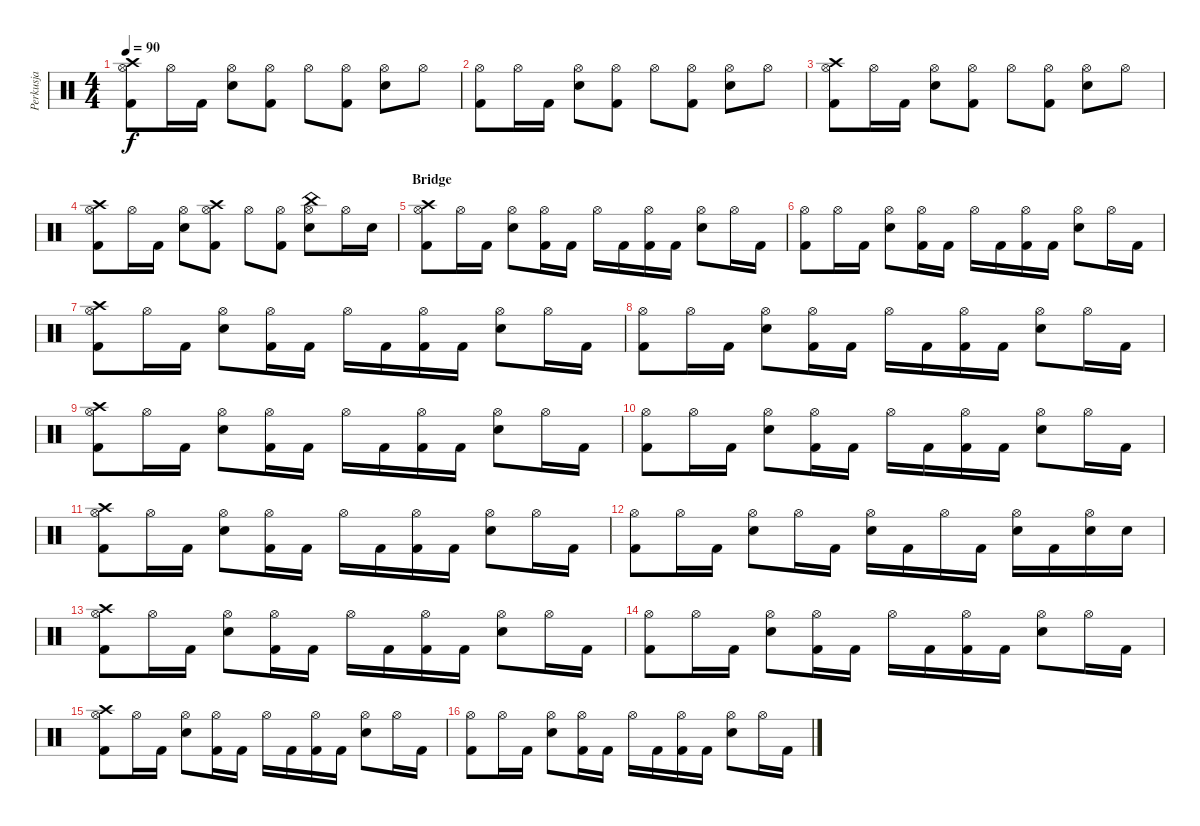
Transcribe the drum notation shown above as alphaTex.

\track ("Perkusja" "Perkusja") {instrument percussion}
\staff {score}
\articulation defaults
\ts (4 4)
\tempo 90
\clef neutral
\ks c
("Hi-Hat (open)" "Kick (hit) 2" "Crash high (hit)").8{dy f} "Hi-Hat (open)".16 "Kick (hit) 2".16 ("Hi-Hat (open)" "Snare (hit) 2").8 ("Hi-Hat (open)" "Kick (hit) 2").8 "Hi-Hat (open)".8 ("Hi-Hat (open)" "Kick (hit) 2").8 ("Hi-Hat (open)" "Snare (hit) 2").8 "Hi-Hat (open)".8 |
("Hi-Hat (open)" "Kick (hit) 2").8 "Hi-Hat (open)".16 "Kick (hit) 2".16 ("Hi-Hat (open)" "Snare (hit) 2").8 ("Hi-Hat (open)" "Kick (hit) 2").8 "Hi-Hat (open)".8 ("Hi-Hat (open)" "Kick (hit) 2").8 ("Hi-Hat (open)" "Snare (hit) 2").8 "Hi-Hat (open)".8 |
("Hi-Hat (open)" "Kick (hit) 2" "Crash high (hit)").8 "Hi-Hat (open)".16 "Kick (hit) 2".16 ("Hi-Hat (open)" "Snare (hit) 2").8 ("Hi-Hat (open)" "Kick (hit) 2").8 "Hi-Hat (open)".8 ("Hi-Hat (open)" "Kick (hit) 2").8 ("Hi-Hat (open)" "Snare (hit) 2").8 "Hi-Hat (open)".8 |
("Hi-Hat (open)" "Kick (hit) 2" "Crash high (hit)").8 "Hi-Hat (open)".16 "Kick (hit) 2".16 ("Hi-Hat (open)" "Snare (hit) 2").8 ("Hi-Hat (open)" "Kick (hit) 2" "Crash high (hit)").8 "Hi-Hat (open)".8 ("Hi-Hat (open)" "Kick (hit) 2").8 ("Hi-Hat (open)" "Snare (hit) 2" "China (hit)").8 "Hi-Hat (open)".16 "Snare (hit) 2".16 |
\section ("" "Bridge")
("Hi-Hat (open)" "Kick (hit) 2" "Crash high (hit)").8 "Hi-Hat (open)".16 "Kick (hit) 2".16 ("Hi-Hat (open)" "Snare (hit) 2").8 ("Hi-Hat (open)" "Kick (hit) 2").16 "Kick (hit) 2".16 "Hi-Hat (open)".16 "Kick (hit) 2".16 ("Hi-Hat (open)" "Kick (hit) 2").16 "Kick (hit) 2".16 ("Hi-Hat (open)" "Snare (hit) 2").8 "Hi-Hat (open)".16 "Kick (hit) 2".16 |
("Hi-Hat (open)" "Kick (hit) 2").8 "Hi-Hat (open)".16 "Kick (hit) 2".16 ("Hi-Hat (open)" "Snare (hit) 2").8 ("Hi-Hat (open)" "Kick (hit) 2").16 "Kick (hit) 2".16 "Hi-Hat (open)".16 "Kick (hit) 2".16 ("Hi-Hat (open)" "Kick (hit) 2").16 "Kick (hit) 2".16 ("Hi-Hat (open)" "Snare (hit) 2").8 "Hi-Hat (open)".16 "Kick (hit) 2".16 |
("Hi-Hat (open)" "Kick (hit) 2" "Crash high (hit)").8 "Hi-Hat (open)".16 "Kick (hit) 2".16 ("Hi-Hat (open)" "Snare (hit) 2").8 ("Hi-Hat (open)" "Kick (hit) 2").16 "Kick (hit) 2".16 "Hi-Hat (open)".16 "Kick (hit) 2".16 ("Hi-Hat (open)" "Kick (hit) 2").16 "Kick (hit) 2".16 ("Hi-Hat (open)" "Snare (hit) 2").8 "Hi-Hat (open)".16 "Kick (hit) 2".16 |
("Hi-Hat (open)" "Kick (hit) 2").8 "Hi-Hat (open)".16 "Kick (hit) 2".16 ("Hi-Hat (open)" "Snare (hit) 2").8 ("Hi-Hat (open)" "Kick (hit) 2").16 "Kick (hit) 2".16 "Hi-Hat (open)".16 "Kick (hit) 2".16 ("Hi-Hat (open)" "Kick (hit) 2").16 "Kick (hit) 2".16 ("Hi-Hat (open)" "Snare (hit) 2").8 "Hi-Hat (open)".16 "Kick (hit) 2".16 |
("Hi-Hat (open)" "Kick (hit) 2" "Crash high (hit)").8 "Hi-Hat (open)".16 "Kick (hit) 2".16 ("Hi-Hat (open)" "Snare (hit) 2").8 ("Hi-Hat (open)" "Kick (hit) 2").16 "Kick (hit) 2".16 "Hi-Hat (open)".16 "Kick (hit) 2".16 ("Hi-Hat (open)" "Kick (hit) 2").16 "Kick (hit) 2".16 ("Hi-Hat (open)" "Snare (hit) 2").8 "Hi-Hat (open)".16 "Kick (hit) 2".16 |
("Hi-Hat (open)" "Kick (hit) 2").8 "Hi-Hat (open)".16 "Kick (hit) 2".16 ("Hi-Hat (open)" "Snare (hit) 2").8 ("Hi-Hat (open)" "Kick (hit) 2").16 "Kick (hit) 2".16 "Hi-Hat (open)".16 "Kick (hit) 2".16 ("Hi-Hat (open)" "Kick (hit) 2").16 "Kick (hit) 2".16 ("Hi-Hat (open)" "Snare (hit) 2").8 "Hi-Hat (open)".16 "Kick (hit) 2".16 |
("Hi-Hat (open)" "Kick (hit) 2" "Crash high (hit)").8 "Hi-Hat (open)".16 "Kick (hit) 2".16 ("Hi-Hat (open)" "Snare (hit) 2").8 ("Hi-Hat (open)" "Kick (hit) 2").16 "Kick (hit) 2".16 "Hi-Hat (open)".16 "Kick (hit) 2".16 ("Hi-Hat (open)" "Kick (hit) 2").16 "Kick (hit) 2".16 ("Hi-Hat (open)" "Snare (hit) 2").8 "Hi-Hat (open)".16 "Kick (hit) 2".16 |
("Hi-Hat (open)" "Kick (hit) 2").8 "Hi-Hat (open)".16 "Kick (hit) 2".16 ("Hi-Hat (open)" "Snare (hit) 2").8 "Hi-Hat (open)".16 "Kick (hit) 2".16 ("Hi-Hat (open)" "Snare (hit) 2").16 "Kick (hit) 2".16 "Hi-Hat (open)".16 "Kick (hit) 2".16 ("Hi-Hat (open)" "Snare (hit) 2").16 "Kick (hit) 2".16 ("Hi-Hat (open)" "Snare (hit) 2").16 "Snare (hit) 2".16 |
("Hi-Hat (open)" "Kick (hit) 2" "Crash high (hit)").8 "Hi-Hat (open)".16 "Kick (hit) 2".16 ("Hi-Hat (open)" "Snare (hit) 2").8 ("Hi-Hat (open)" "Kick (hit) 2").16 "Kick (hit) 2".16 "Hi-Hat (open)".16 "Kick (hit) 2".16 ("Hi-Hat (open)" "Kick (hit) 2").16 "Kick (hit) 2".16 ("Hi-Hat (open)" "Snare (hit) 2").8 "Hi-Hat (open)".16 "Kick (hit) 2".16 |
("Hi-Hat (open)" "Kick (hit) 2").8 "Hi-Hat (open)".16 "Kick (hit) 2".16 ("Hi-Hat (open)" "Snare (hit) 2").8 ("Hi-Hat (open)" "Kick (hit) 2").16 "Kick (hit) 2".16 "Hi-Hat (open)".16 "Kick (hit) 2".16 ("Hi-Hat (open)" "Kick (hit) 2").16 "Kick (hit) 2".16 ("Hi-Hat (open)" "Snare (hit) 2").8 "Hi-Hat (open)".16 "Kick (hit) 2".16 |
("Hi-Hat (open)" "Kick (hit) 2" "Crash high (hit)").8 "Hi-Hat (open)".16 "Kick (hit) 2".16 ("Hi-Hat (open)" "Snare (hit) 2").8 ("Hi-Hat (open)" "Kick (hit) 2").16 "Kick (hit) 2".16 "Hi-Hat (open)".16 "Kick (hit) 2".16 ("Hi-Hat (open)" "Kick (hit) 2").16 "Kick (hit) 2".16 ("Hi-Hat (open)" "Snare (hit) 2").8 "Hi-Hat (open)".16 "Kick (hit) 2".16 |
("Hi-Hat (open)" "Kick (hit) 2").8 "Hi-Hat (open)".16 "Kick (hit) 2".16 ("Hi-Hat (open)" "Snare (hit) 2").8 ("Hi-Hat (open)" "Kick (hit) 2").16 "Kick (hit) 2".16 "Hi-Hat (open)".16 "Kick (hit) 2".16 ("Hi-Hat (open)" "Kick (hit) 2").16 "Kick (hit) 2".16 ("Hi-Hat (open)" "Snare (hit) 2").8 "Hi-Hat (open)".16 "Kick (hit) 2".16
